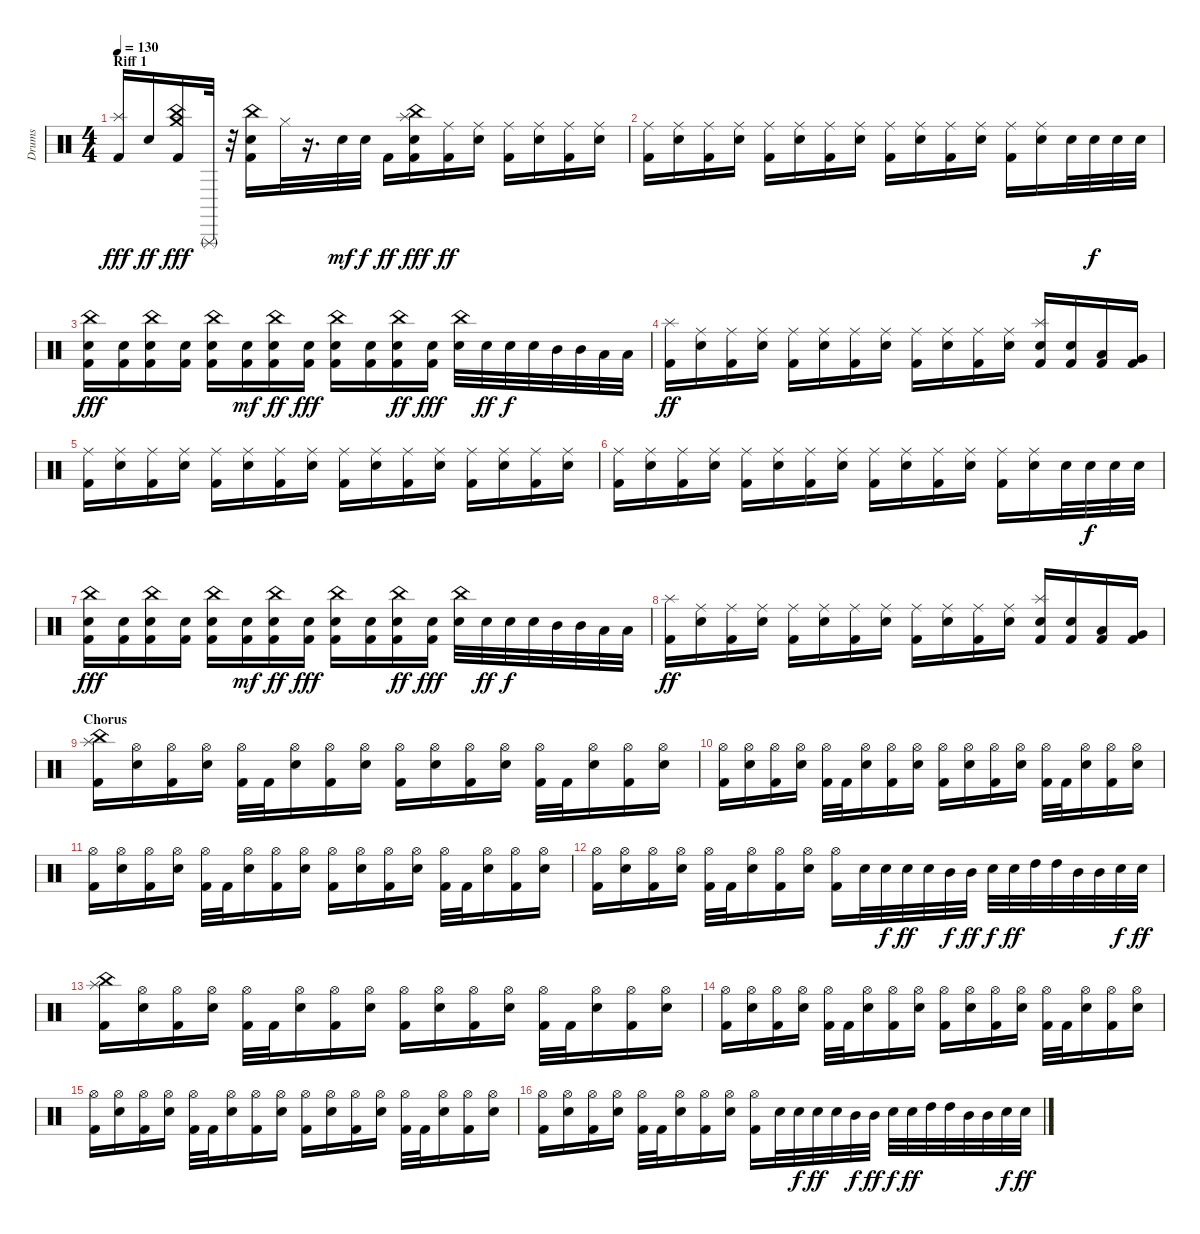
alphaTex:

\track ("Drums" "Drums") {instrument percussion}
\staff {score}
\articulation defaults
\ts (4 4)
\section ("" "Riff 1")
\tempo 130
\clef neutral
\ks c
("Kick (hit) 2" "Splash (hit)").16{dy fff} "Snare (hit) 2".16{dy ff} ("Kick (hit) 2" "Crash medium (hit)" "China (hit)").16{dy fff} "Triangle (rnute)".32 r.32 ("Kick (hit) 2" "Snare (hit) 2" "China (hit)").16 "Hi-Hat (closed)".32 r.16{d} "Snare (hit) 2".32{dy mf} "Snare (hit) 2".32{dy f} "Kick (hit) 2".16{dy ff} ("Kick (hit) 2" "Snare (hit) 2" "China (hit)" "Splash (hit)").16{dy fff} ("Kick (hit) 2" "Ride (middle)").16{dy ff} ("Snare (hit) 2" "Ride (middle)").16 ("Kick (hit) 2" "Ride (middle)").16 ("Snare (hit) 2" "Ride (middle)").16 ("Kick (hit) 2" "Ride (middle)").16 ("Snare (hit) 2" "Ride (middle)").16 |
("Kick (hit) 2" "Ride (middle)").16 ("Snare (hit) 2" "Ride (middle)").16 ("Kick (hit) 2" "Ride (middle)").16 ("Snare (hit) 2" "Ride (middle)").16 ("Kick (hit) 2" "Ride (middle)").16 ("Snare (hit) 2" "Ride (middle)").16 ("Kick (hit) 2" "Ride (middle)").16 ("Snare (hit) 2" "Ride (middle)").16 ("Kick (hit) 2" "Ride (middle)").16 ("Snare (hit) 2" "Ride (middle)").16 ("Kick (hit) 2" "Ride (middle)").16 ("Snare (hit) 2" "Ride (middle)").16 ("Kick (hit) 2" "Ride (middle)").16 ("Snare (hit) 2" "Ride (middle)").16 "Snare (hit) 2".32 "Snare (hit) 2".32{dy f} "Snare (hit) 2".32 "Snare (hit) 2".32 |
("Kick (hit) 2" "Snare (hit) 2" "China (hit)").16{dy fff} ("Kick (hit) 2" "Snare (hit) 2").16 ("Kick (hit) 2" "Snare (hit) 2" "China (hit)").16 ("Kick (hit) 2" "Snare (hit) 2").16 ("Kick (hit) 2" "Snare (hit) 2" "China (hit)").16 ("Kick (hit) 2" "Snare (hit) 2").16{dy mf} ("Kick (hit) 2" "Snare (hit) 2" "China (hit)").16{dy ff} ("Kick (hit) 2" "Snare (hit) 2").16{dy fff} ("Kick (hit) 2" "Snare (hit) 2" "China (hit)").16 ("Kick (hit) 2" "Snare (hit) 2").16 ("Kick (hit) 2" "Snare (hit) 2" "China (hit)").16{dy ff} ("Kick (hit) 2" "Snare (hit) 2").16{dy fff} ("Snare (hit) 2" "China (hit)").32 "Snare (hit) 2".32{dy ff} "Snare (hit) 2".32{dy f} "Snare (hit) 2".32 "Mid Tom (hit)".32 "Mid Tom (hit)".32 "Low Tom (hit)".32 "Low Tom (hit)".32 |
("Kick (hit) 2" "Splash (hit)").16{dy ff} ("Snare (hit) 2" "Ride (middle)").16 ("Kick (hit) 2" "Ride (middle)").16 ("Snare (hit) 2" "Ride (middle)").16 ("Kick (hit) 2" "Ride (middle)").16 ("Snare (hit) 2" "Ride (middle)").16 ("Kick (hit) 2" "Ride (middle)").16 ("Snare (hit) 2" "Ride (middle)").16 ("Kick (hit) 2" "Ride (middle)").16 ("Snare (hit) 2" "Ride (middle)").16 ("Kick (hit) 2" "Ride (middle)").16 ("Snare (hit) 2" "Ride (middle)").16 ("Kick (hit) 2" "Snare (hit) 2" "Splash (hit)").16 ("Kick (hit) 2" "Snare (hit) 2").16 ("Kick (hit) 2" "Low Tom (hit)").16 ("Kick (hit) 2" "Very Low Tom (hit)").16 |
("Kick (hit) 2" "Ride (middle)").16 ("Snare (hit) 2" "Ride (middle)").16 ("Kick (hit) 2" "Ride (middle)").16 ("Snare (hit) 2" "Ride (middle)").16 ("Kick (hit) 2" "Ride (middle)").16 ("Snare (hit) 2" "Ride (middle)").16 ("Kick (hit) 2" "Ride (middle)").16 ("Snare (hit) 2" "Ride (middle)").16 ("Kick (hit) 2" "Ride (middle)").16 ("Snare (hit) 2" "Ride (middle)").16 ("Kick (hit) 2" "Ride (middle)").16 ("Snare (hit) 2" "Ride (middle)").16 ("Kick (hit) 2" "Ride (middle)").16 ("Snare (hit) 2" "Ride (middle)").16 ("Kick (hit) 2" "Ride (middle)").16 ("Snare (hit) 2" "Ride (middle)").16 |
("Kick (hit) 2" "Ride (middle)").16 ("Snare (hit) 2" "Ride (middle)").16 ("Kick (hit) 2" "Ride (middle)").16 ("Snare (hit) 2" "Ride (middle)").16 ("Kick (hit) 2" "Ride (middle)").16 ("Snare (hit) 2" "Ride (middle)").16 ("Kick (hit) 2" "Ride (middle)").16 ("Snare (hit) 2" "Ride (middle)").16 ("Kick (hit) 2" "Ride (middle)").16 ("Snare (hit) 2" "Ride (middle)").16 ("Kick (hit) 2" "Ride (middle)").16 ("Snare (hit) 2" "Ride (middle)").16 ("Kick (hit) 2" "Ride (middle)").16 ("Snare (hit) 2" "Ride (middle)").16 "Snare (hit) 2".32 "Snare (hit) 2".32{dy f} "Snare (hit) 2".32 "Snare (hit) 2".32 |
("Kick (hit) 2" "Snare (hit) 2" "China (hit)").16{dy fff} ("Kick (hit) 2" "Snare (hit) 2").16 ("Kick (hit) 2" "Snare (hit) 2" "China (hit)").16 ("Kick (hit) 2" "Snare (hit) 2").16 ("Kick (hit) 2" "Snare (hit) 2" "China (hit)").16 ("Kick (hit) 2" "Snare (hit) 2").16{dy mf} ("Kick (hit) 2" "Snare (hit) 2" "China (hit)").16{dy ff} ("Kick (hit) 2" "Snare (hit) 2").16{dy fff} ("Kick (hit) 2" "Snare (hit) 2" "China (hit)").16 ("Kick (hit) 2" "Snare (hit) 2").16 ("Kick (hit) 2" "Snare (hit) 2" "China (hit)").16{dy ff} ("Kick (hit) 2" "Snare (hit) 2").16{dy fff} ("Snare (hit) 2" "China (hit)").32 "Snare (hit) 2".32{dy ff} "Snare (hit) 2".32{dy f} "Snare (hit) 2".32 "Mid Tom (hit)".32 "Mid Tom (hit)".32 "Low Tom (hit)".32 "Low Tom (hit)".32 |
("Kick (hit) 2" "Splash (hit)").16{dy ff} ("Snare (hit) 2" "Ride (middle)").16 ("Kick (hit) 2" "Ride (middle)").16 ("Snare (hit) 2" "Ride (middle)").16 ("Kick (hit) 2" "Ride (middle)").16 ("Snare (hit) 2" "Ride (middle)").16 ("Kick (hit) 2" "Ride (middle)").16 ("Snare (hit) 2" "Ride (middle)").16 ("Kick (hit) 2" "Ride (middle)").16 ("Snare (hit) 2" "Ride (middle)").16 ("Kick (hit) 2" "Ride (middle)").16 ("Snare (hit) 2" "Ride (middle)").16 ("Kick (hit) 2" "Snare (hit) 2" "Splash (hit)").16 ("Kick (hit) 2" "Snare (hit) 2").16 ("Kick (hit) 2" "Low Tom (hit)").16 ("Kick (hit) 2" "Very Low Tom (hit)").16 |
\section ("" "Chorus")
("Kick (hit) 2" "Splash (hit)" "China (hit)").16 ("Snare (hit) 2" "Hi-Hat (open)").16 ("Kick (hit) 2" "Hi-Hat (open)").16 ("Snare (hit) 2" "Hi-Hat (open)").16 ("Kick (hit) 2" "Hi-Hat (open)").32 "Kick (hit) 2".32 ("Snare (hit) 2" "Hi-Hat (open)").16 ("Kick (hit) 2" "Hi-Hat (open)").16 ("Snare (hit) 2" "Hi-Hat (open)").16 ("Kick (hit) 2" "Hi-Hat (open)").16 ("Snare (hit) 2" "Hi-Hat (open)").16 ("Kick (hit) 2" "Hi-Hat (open)").16 ("Snare (hit) 2" "Hi-Hat (open)").16 ("Kick (hit) 2" "Hi-Hat (open)").32 "Kick (hit) 2".32 ("Snare (hit) 2" "Hi-Hat (open)").16 ("Kick (hit) 2" "Hi-Hat (open)").16 ("Snare (hit) 2" "Hi-Hat (open)").16 |
("Kick (hit) 2" "Hi-Hat (open)").16 ("Snare (hit) 2" "Hi-Hat (open)").16 ("Kick (hit) 2" "Hi-Hat (open)").16 ("Snare (hit) 2" "Hi-Hat (open)").16 ("Kick (hit) 2" "Hi-Hat (open)").32 "Kick (hit) 2".32 ("Electric Snare (hit)" "Hi-Hat (open)").16 ("Kick (hit) 2" "Hi-Hat (open)").16 ("Snare (hit) 2" "Hi-Hat (open)").16 ("Kick (hit) 2" "Hi-Hat (open)").16 ("Snare (hit) 2" "Hi-Hat (open)").16 ("Kick (hit) 2" "Hi-Hat (open)").16 ("Snare (hit) 2" "Hi-Hat (open)").16 ("Kick (hit) 2" "Hi-Hat (open)").32 "Kick (hit) 2".32 ("Snare (hit) 2" "Hi-Hat (open)").16 ("Kick (hit) 2" "Hi-Hat (open)").16 ("Snare (hit) 2" "Hi-Hat (open)").16 |
("Kick (hit) 2" "Hi-Hat (open)").16 ("Snare (hit) 2" "Hi-Hat (open)").16 ("Kick (hit) 2" "Hi-Hat (open)").16 ("Snare (hit) 2" "Hi-Hat (open)").16 ("Kick (hit) 2" "Hi-Hat (open)").32 "Kick (hit) 2".32 ("Snare (hit) 2" "Hi-Hat (open)").16 ("Kick (hit) 2" "Hi-Hat (open)").16 ("Snare (hit) 2" "Hi-Hat (open)").16 ("Kick (hit) 2" "Hi-Hat (open)").16 ("Snare (hit) 2" "Hi-Hat (open)").16 ("Kick (hit) 2" "Hi-Hat (open)").16 ("Snare (hit) 2" "Hi-Hat (open)").16 ("Kick (hit) 2" "Hi-Hat (open)").32 "Kick (hit) 2".32 ("Snare (hit) 2" "Hi-Hat (open)").16 ("Kick (hit) 2" "Hi-Hat (open)").16 ("Snare (hit) 2" "Hi-Hat (open)").16 |
("Kick (hit) 2" "Hi-Hat (open)").16 ("Snare (hit) 2" "Hi-Hat (open)").16 ("Kick (hit) 2" "Hi-Hat (open)").16 ("Snare (hit) 2" "Hi-Hat (open)").16 ("Kick (hit) 2" "Hi-Hat (open)").32 "Kick (hit) 2".32 ("Snare (hit) 2" "Hi-Hat (open)").16 ("Kick (hit) 2" "Hi-Hat (open)").16 ("Snare (hit) 2" "Hi-Hat (open)").16 ("Kick (hit) 2" "Hi-Hat (open)").16 "Snare (hit) 2".32 "Snare (hit) 2".32{dy f} "Snare (hit) 2".32{dy ff} "Snare (hit) 2".32 "Mid Tom (hit)".32{dy f} "Mid Tom (hit)".32{dy ff} "Snare (hit) 2".32{dy f} "Snare (hit) 2".32{dy ff} "High Tom (hit)".32 "High Tom (hit)".32 "Mid Tom (hit)".32 "Mid Tom (hit)".32 "Snare (hit) 2".32{dy f} "Snare (hit) 2".32{dy ff} |
("Kick (hit) 2" "Splash (hit)" "China (hit)").16 ("Snare (hit) 2" "Hi-Hat (open)").16 ("Kick (hit) 2" "Hi-Hat (open)").16 ("Snare (hit) 2" "Hi-Hat (open)").16 ("Kick (hit) 2" "Hi-Hat (open)").32 "Kick (hit) 2".32 ("Snare (hit) 2" "Hi-Hat (open)").16 ("Kick (hit) 2" "Hi-Hat (open)").16 ("Snare (hit) 2" "Hi-Hat (open)").16 ("Kick (hit) 2" "Hi-Hat (open)").16 ("Snare (hit) 2" "Hi-Hat (open)").16 ("Kick (hit) 2" "Hi-Hat (open)").16 ("Snare (hit) 2" "Hi-Hat (open)").16 ("Kick (hit) 2" "Hi-Hat (open)").32 "Kick (hit) 2".32 ("Snare (hit) 2" "Hi-Hat (open)").16 ("Kick (hit) 2" "Hi-Hat (open)").16 ("Snare (hit) 2" "Hi-Hat (open)").16 |
("Kick (hit) 2" "Hi-Hat (open)").16 ("Snare (hit) 2" "Hi-Hat (open)").16 ("Kick (hit) 2" "Hi-Hat (open)").16 ("Snare (hit) 2" "Hi-Hat (open)").16 ("Kick (hit) 2" "Hi-Hat (open)").32 "Kick (hit) 2".32 ("Snare (hit) 2" "Hi-Hat (open)").16 ("Kick (hit) 2" "Hi-Hat (open)").16 ("Snare (hit) 2" "Hi-Hat (open)").16 ("Kick (hit) 2" "Hi-Hat (open)").16 ("Snare (hit) 2" "Hi-Hat (open)").16 ("Kick (hit) 2" "Hi-Hat (open)").16 ("Snare (hit) 2" "Hi-Hat (open)").16 ("Kick (hit) 2" "Hi-Hat (open)").32 "Kick (hit) 2".32 ("Snare (hit) 2" "Hi-Hat (open)").16 ("Kick (hit) 2" "Hi-Hat (open)").16 ("Snare (hit) 2" "Hi-Hat (open)").16 |
("Kick (hit) 2" "Hi-Hat (open)").16 ("Snare (hit) 2" "Hi-Hat (open)").16 ("Kick (hit) 2" "Hi-Hat (open)").16 ("Snare (hit) 2" "Hi-Hat (open)").16 ("Kick (hit) 2" "Hi-Hat (open)").32 "Kick (hit) 2".32 ("Snare (hit) 2" "Hi-Hat (open)").16 ("Kick (hit) 2" "Hi-Hat (open)").16 ("Snare (hit) 2" "Hi-Hat (open)").16 ("Kick (hit) 2" "Hi-Hat (open)").16 ("Snare (hit) 2" "Hi-Hat (open)").16 ("Kick (hit) 2" "Hi-Hat (open)").16 ("Snare (hit) 2" "Hi-Hat (open)").16 ("Kick (hit) 2" "Hi-Hat (open)").32 "Kick (hit) 2".32 ("Snare (hit) 2" "Hi-Hat (open)").16 ("Kick (hit) 2" "Hi-Hat (open)").16 ("Snare (hit) 2" "Hi-Hat (open)").16 |
("Kick (hit) 2" "Hi-Hat (open)").16 ("Snare (hit) 2" "Hi-Hat (open)").16 ("Kick (hit) 2" "Hi-Hat (open)").16 ("Snare (hit) 2" "Hi-Hat (open)").16 ("Kick (hit) 2" "Hi-Hat (open)").32 "Kick (hit) 2".32 ("Snare (hit) 2" "Hi-Hat (open)").16 ("Kick (hit) 2" "Hi-Hat (open)").16 ("Snare (hit) 2" "Hi-Hat (open)").16 ("Kick (hit) 2" "Hi-Hat (open)").16 "Snare (hit) 2".32 "Snare (hit) 2".32{dy f} "Snare (hit) 2".32{dy ff} "Snare (hit) 2".32 "Mid Tom (hit)".32{dy f} "Mid Tom (hit)".32{dy ff} "Snare (hit) 2".32{dy f} "Snare (hit) 2".32{dy ff} "High Tom (hit)".32 "High Tom (hit)".32 "Mid Tom (hit)".32 "Mid Tom (hit)".32 "Snare (hit) 2".32{dy f} "Snare (hit) 2".32{dy ff}
